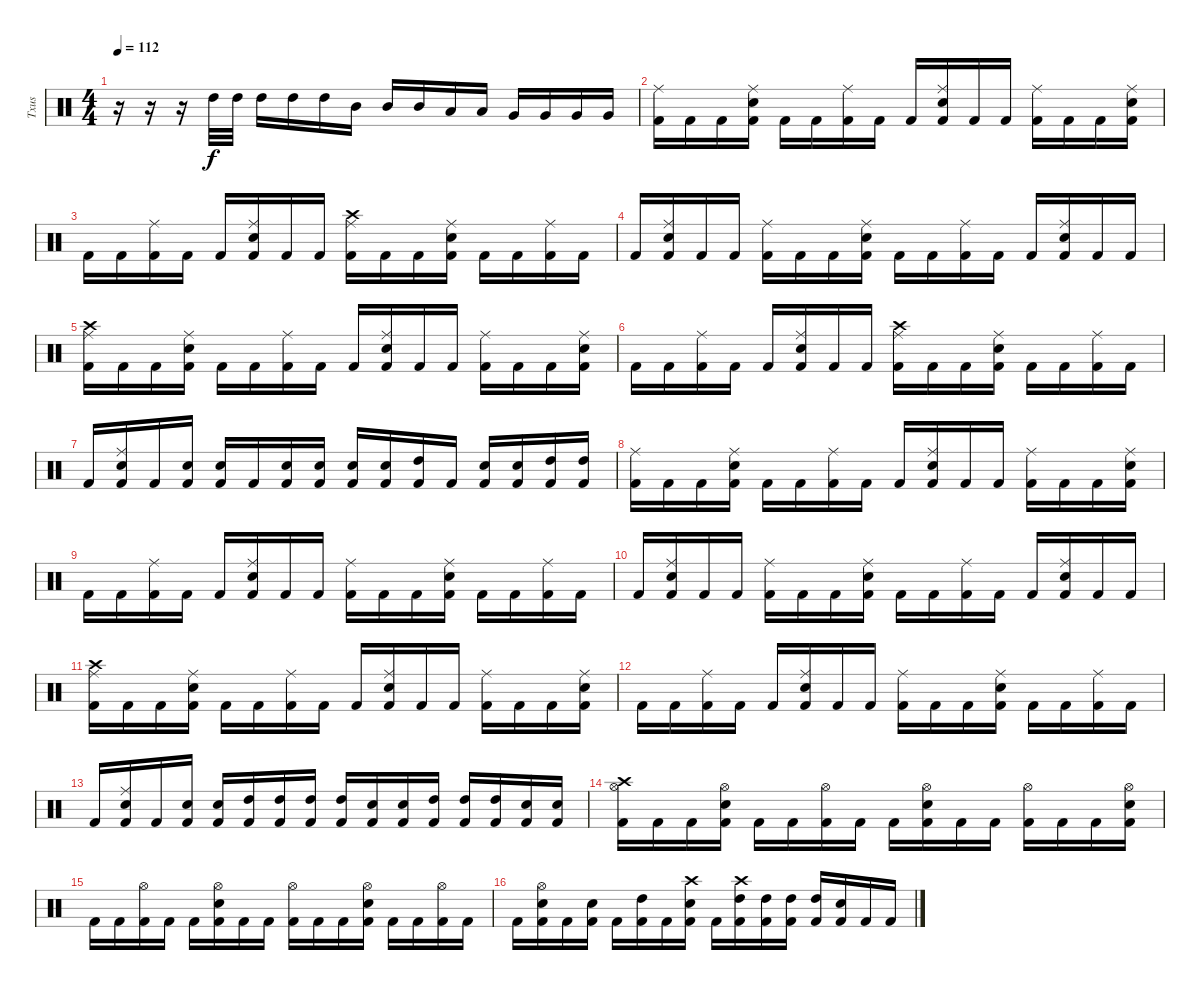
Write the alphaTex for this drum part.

\track ("Txus" "Txus") {instrument percussion}
\staff {score}
\articulation defaults
\ts (4 4)
\tempo 112
\clef neutral
\ks c
r.16{dy f} r.16 r.16 "High Tom (hit)".32 "High Tom (hit)".32 "High Tom (hit)".16 "High Tom (hit)".16 "High Tom (hit)".16 "Mid Tom (hit)".16 "Mid Tom (hit)".16 "Mid Tom (hit)".16 "Low Tom (hit)".16 "Low Tom (hit)".16 "Very Low Tom (hit)".16 "Very Low Tom (hit)".16 "Very Low Tom (hit)".16 "Very Low Tom (hit)".16 |
("Kick (hit) 2" "Ride (middle)").16 "Kick (hit) 2".16 "Kick (hit) 2".16 ("Kick (hit) 2" "Ride (middle)" "Electric Snare (hit)").16 "Kick (hit) 2".16 "Kick (hit) 2".16 ("Kick (hit) 2" "Ride (middle)").16 "Kick (hit) 2".16 "Kick (hit) 2".16 ("Kick (hit) 2" "Ride (middle)" "Electric Snare (hit)").16 "Kick (hit) 2".16 "Kick (hit) 2".16 ("Kick (hit) 2" "Ride (middle)").16 "Kick (hit) 2".16 "Kick (hit) 2".16 ("Kick (hit) 2" "Ride (middle)" "Electric Snare (hit)").16 |
"Kick (hit) 2".16 "Kick (hit) 2".16 ("Kick (hit) 2" "Ride (middle)").16 "Kick (hit) 2".16 "Kick (hit) 2".16 ("Kick (hit) 2" "Ride (middle)" "Electric Snare (hit)").16 "Kick (hit) 2".16 "Kick (hit) 2".16 ("Kick (hit) 2" "Ride (middle)" "Crash high (hit)").16 "Kick (hit) 2".16 "Kick (hit) 2".16 ("Kick (hit) 2" "Ride (middle)" "Electric Snare (hit)").16 "Kick (hit) 2".16 "Kick (hit) 2".16 ("Kick (hit) 2" "Ride (middle)").16 "Kick (hit) 2".16 |
"Kick (hit) 2".16 ("Kick (hit) 2" "Ride (middle)" "Electric Snare (hit)").16 "Kick (hit) 2".16 "Kick (hit) 2".16 ("Kick (hit) 2" "Ride (middle)").16 "Kick (hit) 2".16 "Kick (hit) 2".16 ("Kick (hit) 2" "Ride (middle)" "Electric Snare (hit)").16 "Kick (hit) 2".16 "Kick (hit) 2".16 ("Kick (hit) 2" "Ride (middle)").16 "Kick (hit) 2".16 "Kick (hit) 2".16 ("Kick (hit) 2" "Ride (middle)" "Electric Snare (hit)").16 "Kick (hit) 2".16 "Kick (hit) 2".16 |
("Kick (hit) 2" "Ride (middle)" "Crash high (hit)").16 "Kick (hit) 2".16 "Kick (hit) 2".16 ("Kick (hit) 2" "Ride (middle)" "Electric Snare (hit)").16 "Kick (hit) 2".16 "Kick (hit) 2".16 ("Kick (hit) 2" "Ride (middle)").16 "Kick (hit) 2".16 "Kick (hit) 2".16 ("Kick (hit) 2" "Ride (middle)" "Electric Snare (hit)").16 "Kick (hit) 2".16 "Kick (hit) 2".16 ("Kick (hit) 2" "Ride (middle)").16 "Kick (hit) 2".16 "Kick (hit) 2".16 ("Kick (hit) 2" "Ride (middle)" "Electric Snare (hit)").16 |
"Kick (hit) 2".16 "Kick (hit) 2".16 ("Kick (hit) 2" "Ride (middle)").16 "Kick (hit) 2".16 "Kick (hit) 2".16 ("Kick (hit) 2" "Ride (middle)" "Electric Snare (hit)").16 "Kick (hit) 2".16 "Kick (hit) 2".16 ("Kick (hit) 2" "Ride (middle)" "Crash high (hit)").16 "Kick (hit) 2".16 "Kick (hit) 2".16 ("Kick (hit) 2" "Ride (middle)" "Electric Snare (hit)").16 "Kick (hit) 2".16 "Kick (hit) 2".16 ("Kick (hit) 2" "Ride (middle)").16 "Kick (hit) 2".16 |
"Kick (hit) 2".16 ("Kick (hit) 2" "Ride (middle)" "Electric Snare (hit)").16 "Kick (hit) 2".16 ("Kick (hit) 2" "Electric Snare (hit)").16 ("Kick (hit) 2" "Electric Snare (hit)").16 "Kick (hit) 2".16 ("Kick (hit) 2" "Electric Snare (hit)").16 ("Kick (hit) 2" "Electric Snare (hit)").16 ("Kick (hit) 2" "Electric Snare (hit)").16 ("Kick (hit) 2" "Electric Snare (hit)").16 ("Kick (hit) 2" "High Tom (hit)").16 "Kick (hit) 2".16 ("Kick (hit) 2" "Electric Snare (hit)").16 ("Kick (hit) 2" "Electric Snare (hit)").16 ("Kick (hit) 2" "High Tom (hit)").16 ("Kick (hit) 2" "High Tom (hit)").16 |
("Kick (hit) 2" "Ride (middle)").16 "Kick (hit) 2".16 "Kick (hit) 2".16 ("Kick (hit) 2" "Ride (middle)" "Electric Snare (hit)").16 "Kick (hit) 2".16 "Kick (hit) 2".16 ("Kick (hit) 2" "Ride (middle)").16 "Kick (hit) 2".16 "Kick (hit) 2".16 ("Kick (hit) 2" "Ride (middle)" "Electric Snare (hit)").16 "Kick (hit) 2".16 "Kick (hit) 2".16 ("Kick (hit) 2" "Ride (middle)").16 "Kick (hit) 2".16 "Kick (hit) 2".16 ("Kick (hit) 2" "Ride (middle)" "Electric Snare (hit)").16 |
"Kick (hit) 2".16 "Kick (hit) 2".16 ("Kick (hit) 2" "Ride (middle)").16 "Kick (hit) 2".16 "Kick (hit) 2".16 ("Kick (hit) 2" "Ride (middle)" "Electric Snare (hit)").16 "Kick (hit) 2".16 "Kick (hit) 2".16 ("Kick (hit) 2" "Ride (middle)").16 "Kick (hit) 2".16 "Kick (hit) 2".16 ("Kick (hit) 2" "Ride (middle)" "Electric Snare (hit)").16 "Kick (hit) 2".16 "Kick (hit) 2".16 ("Kick (hit) 2" "Ride (middle)").16 "Kick (hit) 2".16 |
"Kick (hit) 2".16 ("Kick (hit) 2" "Ride (middle)" "Electric Snare (hit)").16 "Kick (hit) 2".16 "Kick (hit) 2".16 ("Kick (hit) 2" "Ride (middle)").16 "Kick (hit) 2".16 "Kick (hit) 2".16 ("Kick (hit) 2" "Ride (middle)" "Electric Snare (hit)").16 "Kick (hit) 2".16 "Kick (hit) 2".16 ("Kick (hit) 2" "Ride (middle)").16 "Kick (hit) 2".16 "Kick (hit) 2".16 ("Kick (hit) 2" "Ride (middle)" "Electric Snare (hit)").16 "Kick (hit) 2".16 "Kick (hit) 2".16 |
("Kick (hit) 2" "Ride (middle)" "Crash high (hit)").16 "Kick (hit) 2".16 "Kick (hit) 2".16 ("Kick (hit) 2" "Ride (middle)" "Electric Snare (hit)").16 "Kick (hit) 2".16 "Kick (hit) 2".16 ("Kick (hit) 2" "Ride (middle)").16 "Kick (hit) 2".16 "Kick (hit) 2".16 ("Kick (hit) 2" "Ride (middle)" "Electric Snare (hit)").16 "Kick (hit) 2".16 "Kick (hit) 2".16 ("Kick (hit) 2" "Ride (middle)").16 "Kick (hit) 2".16 "Kick (hit) 2".16 ("Kick (hit) 2" "Ride (middle)" "Electric Snare (hit)").16 |
"Kick (hit) 2".16 "Kick (hit) 2".16 ("Kick (hit) 2" "Ride (middle)").16 "Kick (hit) 2".16 "Kick (hit) 2".16 ("Kick (hit) 2" "Ride (middle)" "Electric Snare (hit)").16 "Kick (hit) 2".16 "Kick (hit) 2".16 ("Kick (hit) 2" "Ride (middle)").16 "Kick (hit) 2".16 "Kick (hit) 2".16 ("Kick (hit) 2" "Ride (middle)" "Electric Snare (hit)").16 "Kick (hit) 2".16 "Kick (hit) 2".16 ("Kick (hit) 2" "Ride (middle)").16 "Kick (hit) 2".16 |
"Kick (hit) 2".16 ("Kick (hit) 2" "Ride (middle)" "Electric Snare (hit)").16 "Kick (hit) 2".16 ("Kick (hit) 2" "Electric Snare (hit)").16 ("Kick (hit) 2" "Electric Snare (hit)").16 ("Kick (hit) 2" "High Tom (hit)").16 ("Kick (hit) 2" "High Tom (hit)").16 ("Kick (hit) 2" "High Tom (hit)").16 ("Kick (hit) 2" "High Tom (hit)").16 ("Kick (hit) 2" "Electric Snare (hit)").16 ("Kick (hit) 2" "Electric Snare (hit)").16 ("Kick (hit) 2" "High Tom (hit)").16 ("Kick (hit) 2" "High Tom (hit)").16 ("Kick (hit) 2" "High Tom (hit)").16 ("Kick (hit) 2" "Electric Snare (hit)").16 ("Kick (hit) 2" "Electric Snare (hit)").16 |
("Kick (hit) 2" "Hi-Hat (open)" "Crash high (hit)").16 "Kick (hit) 2".16 "Kick (hit) 2".16 ("Kick (hit) 2" "Hi-Hat (open)" "Electric Snare (hit)").16 "Kick (hit) 2".16 "Kick (hit) 2".16 ("Kick (hit) 2" "Hi-Hat (open)").16 "Kick (hit) 2".16 "Kick (hit) 2".16 ("Kick (hit) 2" "Hi-Hat (open)" "Electric Snare (hit)").16 "Kick (hit) 2".16 "Kick (hit) 2".16 ("Kick (hit) 2" "Hi-Hat (open)").16 "Kick (hit) 2".16 "Kick (hit) 2".16 ("Kick (hit) 2" "Hi-Hat (open)" "Electric Snare (hit)").16 |
"Kick (hit) 2".16 "Kick (hit) 2".16 ("Kick (hit) 2" "Hi-Hat (open)").16 "Kick (hit) 2".16 "Kick (hit) 2".16 ("Kick (hit) 2" "Hi-Hat (open)" "Electric Snare (hit)").16 "Kick (hit) 2".16 "Kick (hit) 2".16 ("Kick (hit) 2" "Hi-Hat (open)").16 "Kick (hit) 2".16 "Kick (hit) 2".16 ("Kick (hit) 2" "Hi-Hat (open)" "Electric Snare (hit)").16 "Kick (hit) 2".16 "Kick (hit) 2".16 ("Kick (hit) 2" "Hi-Hat (open)").16 "Kick (hit) 2".16 |
"Kick (hit) 2".16 ("Kick (hit) 2" "Hi-Hat (open)" "Electric Snare (hit)").16 "Kick (hit) 2".16 ("Kick (hit) 2" "Electric Snare (hit)").16 "Kick (hit) 2".16 ("Kick (hit) 2" "High Tom (hit)").16 "Kick (hit) 2".16 ("Kick (hit) 2" "Electric Snare (hit)" "Crash high (hit)").16 "Kick (hit) 2".16 ("Kick (hit) 2" "High Tom (hit)" "Crash high (hit)").16 ("Kick (hit) 2" "High Tom (hit)").16 ("Kick (hit) 2" "High Tom (hit)").16 ("Kick (hit) 2" "High Tom (hit)").16 ("Kick (hit) 2" "Electric Snare (hit)").16 "Kick (hit) 2".16 "Kick (hit) 2".16
